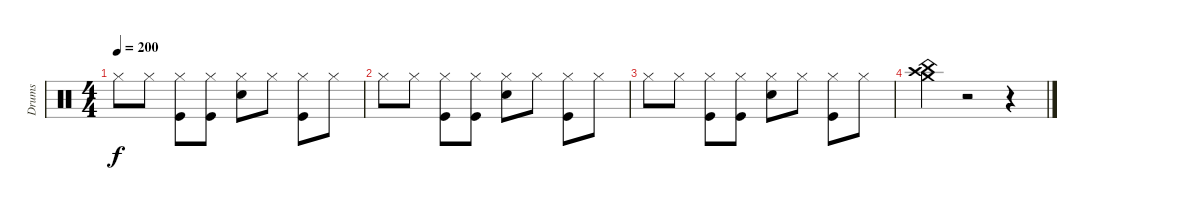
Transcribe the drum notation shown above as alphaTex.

\track ("Drums" "Drums") {instrument percussion}
\staff {score}
\articulation defaults
\ts (4 4)
\tempo 200
\clef neutral
\ks c "Hi-Hat (closed)".8{dy f} "Hi-Hat (closed)".8
("Hi-Hat (closed)" "Kick (hit)").8 ("Kick (hit)" "Hi-Hat (closed)").8 ("Electric Snare (hit)" "Hi-Hat (closed)").8 "Hi-Hat (closed)".8 ("Hi-Hat (closed)" "Kick (hit)").8 "Hi-Hat (closed)".8 |
"Hi-Hat (closed)".8 "Hi-Hat (closed)".8 ("Hi-Hat (closed)" "Kick (hit)").8 ("Kick (hit)" "Hi-Hat (closed)").8 ("Electric Snare (hit)" "Hi-Hat (closed)").8 "Hi-Hat (closed)".8 ("Hi-Hat (closed)" "Kick (hit)").8 "Hi-Hat (closed)".8 |
"Hi-Hat (closed)".8 "Hi-Hat (closed)".8 ("Hi-Hat (closed)" "Kick (hit)").8 ("Kick (hit)" "Hi-Hat (closed)").8 ("Electric Snare (hit)" "Hi-Hat (closed)").8 "Hi-Hat (closed)".8 ("Hi-Hat (closed)" "Kick (hit)").8 "Hi-Hat (closed)".8 |
("China (hit)" "Crash medium (hit)" "Crash high (hit)").4 r.2 r.4
